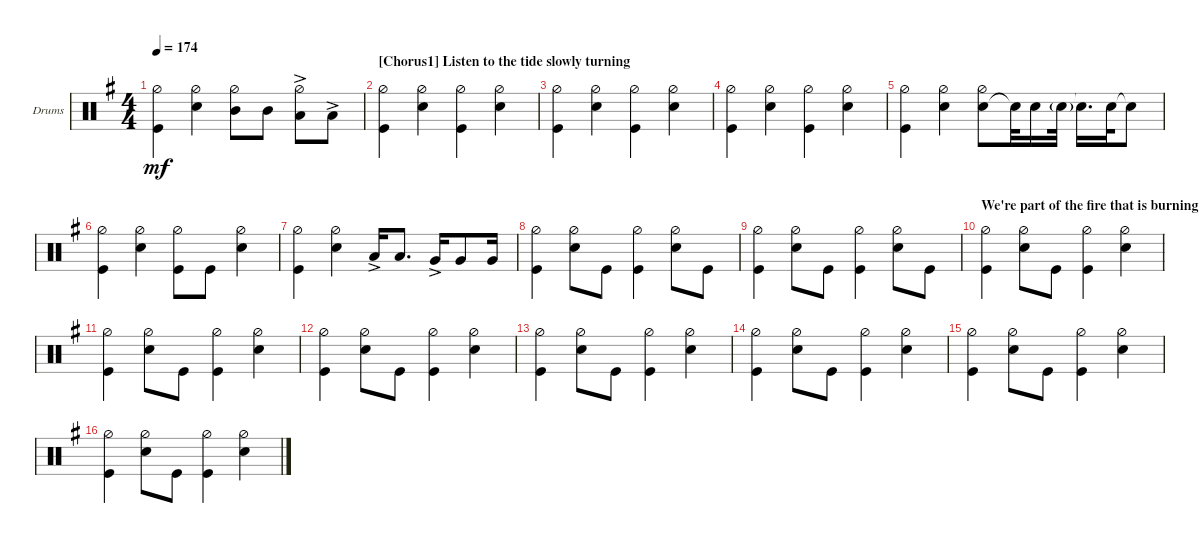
\bracketExtendMode groupsimilarinstruments
\firstSystemTrackNameOrientation horizontal
\otherSystemsTrackNameOrientation horizontal
\track ("Drumkit" "Drums") {instrument percussion}
\staff {score}
\articulation defaults
\ts (4 4)
\tempo 174
\clef neutral
\scale
0.333333
\ks eminor
("Kick (hit)" "Hi-Hat (half)").4{dy mf} ("Snare (hit) 2" "Hi-Hat (half)").4 ("Mid Tom (hit)" "Hi-Hat (half)").8 "Mid Tom (hit)".8 ("Low Tom (hit)"{ac} "Hi-Hat (half)").8 "Low Tom (hit)"{ac}.8 |
\section ("" "[Chorus1] Listen to the tide slowly turning")
\scale
0.333333 ("Kick (hit)" "Hi-Hat (half)").4 ("Snare (hit) 2" "Hi-Hat (half)").4 ("Kick (hit)" "Hi-Hat (half)").4 ("Snare (hit) 2" "Hi-Hat (half)").4 |
\scale
0.333333 ("Kick (hit)" "Hi-Hat (half)").4 ("Snare (hit) 2" "Hi-Hat (half)").4 ("Kick (hit)" "Hi-Hat (half)").4 ("Snare (hit) 2" "Hi-Hat (half)").4 |
\scale
0.333333 ("Kick (hit)" "Hi-Hat (half)").4 ("Snare (hit) 2" "Hi-Hat (half)").4 ("Kick (hit)" "Hi-Hat (half)").4 ("Snare (hit) 2" "Hi-Hat (half)").4 |
\scale
0.333333 ("Kick (hit)" "Hi-Hat (half)").4 ("Snare (hit) 2" "Hi-Hat (half)").4 ("Snare (hit) 2" "Hi-Hat (half)").8 "Snare (hit) 2"{t}.32 "Snare (hit) 2".16 "Snare (hit) 2"{g}.32 "Snare (hit) 2"{t}.16{d} "Snare (hit) 2".32 "Snare (hit) 2"{t}.8 |
\scale
0.333333 ("Kick (hit)" "Hi-Hat (half)").4 ("Snare (hit) 2" "Hi-Hat (half)").4 ("Kick (hit)" "Hi-Hat (half)").8 "Kick (hit)".8 ("Snare (hit) 2" "Hi-Hat (half)").4 |
\scale
0.333333 ("Kick (hit)" "Hi-Hat (half)").4 ("Snare (hit) 2" "Hi-Hat (half)").4 "Low Tom (hit)"{ac}.16 "Low Tom (hit)".8{d} "Very Low Tom (hit)"{ac}.16 "Very Low Tom (hit)".8 "Very Low Tom (hit)".16 |
\scale
0.333333 ("Kick (hit)" "Hi-Hat (half)").4 ("Snare (hit) 2" "Hi-Hat (half)").8 "Kick (hit)".8 ("Kick (hit)" "Hi-Hat (half)").4 ("Snare (hit) 2" "Hi-Hat (half)").8 "Kick (hit)".8 |
\scale
0.333333 ("Kick (hit)" "Hi-Hat (half)").4 ("Snare (hit) 2" "Hi-Hat (half)").8 "Kick (hit)".8 ("Kick (hit)" "Hi-Hat (half)").4 ("Snare (hit) 2" "Hi-Hat (half)").8 "Kick (hit)".8 |
\section ("" "We're part of the fire that is burning")
\scale
0.333333 ("Kick (hit)" "Hi-Hat (half)").4 ("Snare (hit) 2" "Hi-Hat (half)").8 "Kick (hit)".8 ("Kick (hit)" "Hi-Hat (half)").4 ("Snare (hit) 2" "Hi-Hat (half)").4 |
\scale
0.333333 ("Kick (hit)" "Hi-Hat (half)").4 ("Snare (hit) 2" "Hi-Hat (half)").8 "Kick (hit)".8 ("Kick (hit)" "Hi-Hat (half)").4 ("Snare (hit) 2" "Hi-Hat (half)").4 |
\scale
0.333333 ("Kick (hit)" "Hi-Hat (half)").4 ("Snare (hit) 2" "Hi-Hat (half)").8 "Kick (hit)".8 ("Kick (hit)" "Hi-Hat (half)").4 ("Snare (hit) 2" "Hi-Hat (half)").4 |
\scale
0.333333 ("Kick (hit)" "Hi-Hat (half)").4 ("Snare (hit) 2" "Hi-Hat (half)").8 "Kick (hit)".8 ("Kick (hit)" "Hi-Hat (half)").4 ("Snare (hit) 2" "Hi-Hat (half)").4 |
\scale
0.333333 ("Kick (hit)" "Hi-Hat (half)").4 ("Snare (hit) 2" "Hi-Hat (half)").8 "Kick (hit)".8 ("Kick (hit)" "Hi-Hat (half)").4 ("Snare (hit) 2" "Hi-Hat (half)").4 |
\scale
0.333333 ("Kick (hit)" "Hi-Hat (half)").4 ("Snare (hit) 2" "Hi-Hat (half)").8 "Kick (hit)".8 ("Kick (hit)" "Hi-Hat (half)").4 ("Snare (hit) 2" "Hi-Hat (half)").4 |
\scale
0.333333 ("Kick (hit)" "Hi-Hat (half)").4 ("Snare (hit) 2" "Hi-Hat (half)").8 "Kick (hit)".8 ("Kick (hit)" "Hi-Hat (half)").4 ("Snare (hit) 2" "Hi-Hat (half)").4
